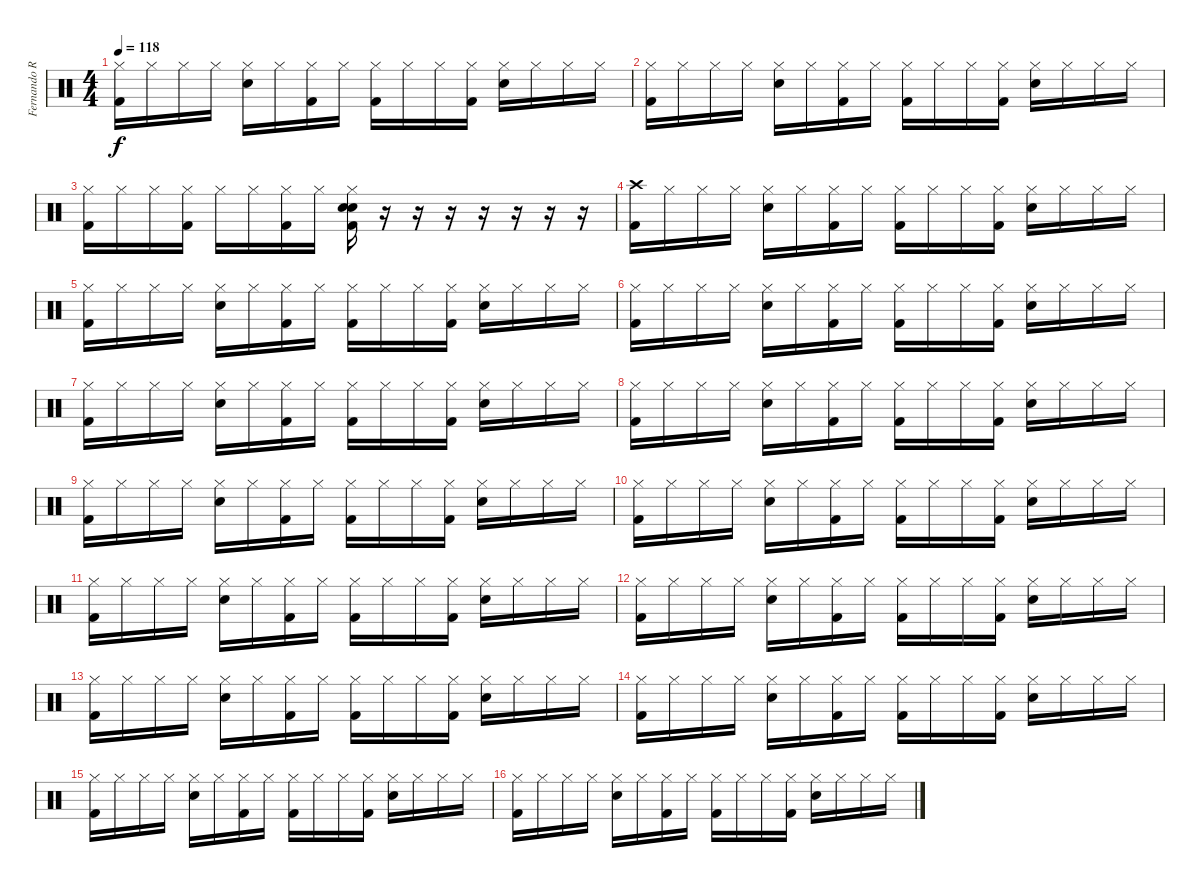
\track ("Fernando Ricciardi" "Fernando R") {instrument percussion}
\staff {score}
\articulation defaults
\ts (4 4)
\tempo 118
\clef neutral
\ks c
("Hi-Hat (closed)" "Kick (hit) 2").16{dy f} "Hi-Hat (closed)".16 "Hi-Hat (closed)".16 "Hi-Hat (closed)".16 ("Hi-Hat (closed)" "Snare (hit) 2").16 "Hi-Hat (closed)".16 ("Hi-Hat (closed)" "Kick (hit) 2").16 "Hi-Hat (closed)".16 ("Hi-Hat (closed)" "Kick (hit) 2").16 "Hi-Hat (closed)".16 "Hi-Hat (closed)".16 ("Hi-Hat (closed)" "Kick (hit) 2").16 ("Hi-Hat (closed)" "Snare (hit) 2").16 "Hi-Hat (closed)".16 "Hi-Hat (closed)".16 "Hi-Hat (closed)".16 |
("Hi-Hat (closed)" "Kick (hit) 2").16 "Hi-Hat (closed)".16 "Hi-Hat (closed)".16 "Hi-Hat (closed)".16 ("Hi-Hat (closed)" "Snare (hit) 2").16 "Hi-Hat (closed)".16 ("Hi-Hat (closed)" "Kick (hit) 2").16 "Hi-Hat (closed)".16 ("Hi-Hat (closed)" "Kick (hit) 2").16 "Hi-Hat (closed)".16 "Hi-Hat (closed)".16 ("Hi-Hat (closed)" "Kick (hit) 2").16 ("Hi-Hat (closed)" "Snare (hit) 2").16 "Hi-Hat (closed)".16 "Hi-Hat (closed)".16 "Hi-Hat (closed)".16 |
("Hi-Hat (closed)" "Kick (hit) 2").16 "Hi-Hat (closed)".16 "Hi-Hat (closed)".16 ("Hi-Hat (closed)" "Kick (hit) 2").16 "Hi-Hat (closed)".16 "Hi-Hat (closed)".16 ("Hi-Hat (closed)" "Kick (hit) 2").16 "Hi-Hat (closed)".16 ("Snare (hit) 2" "Hi-Hat (closed)" "Electric Snare (hit)" "Kick (hit) 2").16 r.16 r.16 r.16 r.16 r.16 r.16 r.16 |
("Crash high (hit)" "Kick (hit) 2").16 "Hi-Hat (closed)".16 "Hi-Hat (closed)".16 "Hi-Hat (closed)".16 ("Hi-Hat (closed)" "Snare (hit) 2").16 "Hi-Hat (closed)".16 ("Hi-Hat (closed)" "Kick (hit) 2").16 "Hi-Hat (closed)".16 ("Hi-Hat (closed)" "Kick (hit) 2").16 "Hi-Hat (closed)".16 "Hi-Hat (closed)".16 ("Hi-Hat (closed)" "Kick (hit) 2").16 ("Hi-Hat (closed)" "Snare (hit) 2").16 "Hi-Hat (closed)".16 "Hi-Hat (closed)".16 "Hi-Hat (closed)".16 |
("Hi-Hat (closed)" "Kick (hit) 2").16 "Hi-Hat (closed)".16 "Hi-Hat (closed)".16 "Hi-Hat (closed)".16 ("Hi-Hat (closed)" "Snare (hit) 2").16 "Hi-Hat (closed)".16 ("Hi-Hat (closed)" "Kick (hit) 2").16 "Hi-Hat (closed)".16 ("Hi-Hat (closed)" "Kick (hit) 2").16 "Hi-Hat (closed)".16 "Hi-Hat (closed)".16 ("Hi-Hat (closed)" "Kick (hit) 2").16 ("Hi-Hat (closed)" "Snare (hit) 2").16 "Hi-Hat (closed)".16 "Hi-Hat (closed)".16 "Hi-Hat (closed)".16 |
("Hi-Hat (closed)" "Kick (hit) 2").16 "Hi-Hat (closed)".16 "Hi-Hat (closed)".16 "Hi-Hat (closed)".16 ("Hi-Hat (closed)" "Snare (hit) 2").16 "Hi-Hat (closed)".16 ("Hi-Hat (closed)" "Kick (hit) 2").16 "Hi-Hat (closed)".16 ("Hi-Hat (closed)" "Kick (hit) 2").16 "Hi-Hat (closed)".16 "Hi-Hat (closed)".16 ("Hi-Hat (closed)" "Kick (hit) 2").16 ("Hi-Hat (closed)" "Snare (hit) 2").16 "Hi-Hat (closed)".16 "Hi-Hat (closed)".16 "Hi-Hat (closed)".16 |
("Hi-Hat (closed)" "Kick (hit) 2").16 "Hi-Hat (closed)".16 "Hi-Hat (closed)".16 "Hi-Hat (closed)".16 ("Hi-Hat (closed)" "Snare (hit) 2").16 "Hi-Hat (closed)".16 ("Hi-Hat (closed)" "Kick (hit) 2").16 "Hi-Hat (closed)".16 ("Hi-Hat (closed)" "Kick (hit) 2").16 "Hi-Hat (closed)".16 "Hi-Hat (closed)".16 ("Hi-Hat (closed)" "Kick (hit) 2").16 ("Hi-Hat (closed)" "Snare (hit) 2").16 "Hi-Hat (closed)".16 "Hi-Hat (closed)".16 "Hi-Hat (closed)".16 |
("Hi-Hat (closed)" "Kick (hit) 2").16 "Hi-Hat (closed)".16 "Hi-Hat (closed)".16 "Hi-Hat (closed)".16 ("Hi-Hat (closed)" "Snare (hit) 2").16 "Hi-Hat (closed)".16 ("Hi-Hat (closed)" "Kick (hit) 2").16 "Hi-Hat (closed)".16 ("Hi-Hat (closed)" "Kick (hit) 2").16 "Hi-Hat (closed)".16 "Hi-Hat (closed)".16 ("Hi-Hat (closed)" "Kick (hit) 2").16 ("Hi-Hat (closed)" "Snare (hit) 2").16 "Hi-Hat (closed)".16 "Hi-Hat (closed)".16 "Hi-Hat (closed)".16 |
("Hi-Hat (closed)" "Kick (hit) 2").16 "Hi-Hat (closed)".16 "Hi-Hat (closed)".16 "Hi-Hat (closed)".16 ("Hi-Hat (closed)" "Snare (hit) 2").16 "Hi-Hat (closed)".16 ("Hi-Hat (closed)" "Kick (hit) 2").16 "Hi-Hat (closed)".16 ("Hi-Hat (closed)" "Kick (hit) 2").16 "Hi-Hat (closed)".16 "Hi-Hat (closed)".16 ("Hi-Hat (closed)" "Kick (hit) 2").16 ("Hi-Hat (closed)" "Snare (hit) 2").16 "Hi-Hat (closed)".16 "Hi-Hat (closed)".16 "Hi-Hat (closed)".16 |
("Hi-Hat (closed)" "Kick (hit) 2").16 "Hi-Hat (closed)".16 "Hi-Hat (closed)".16 "Hi-Hat (closed)".16 ("Hi-Hat (closed)" "Snare (hit) 2").16 "Hi-Hat (closed)".16 ("Hi-Hat (closed)" "Kick (hit) 2").16 "Hi-Hat (closed)".16 ("Hi-Hat (closed)" "Kick (hit) 2").16 "Hi-Hat (closed)".16 "Hi-Hat (closed)".16 ("Hi-Hat (closed)" "Kick (hit) 2").16 ("Hi-Hat (closed)" "Snare (hit) 2").16 "Hi-Hat (closed)".16 "Hi-Hat (closed)".16 "Hi-Hat (closed)".16 |
("Hi-Hat (closed)" "Kick (hit) 2").16 "Hi-Hat (closed)".16 "Hi-Hat (closed)".16 "Hi-Hat (closed)".16 ("Hi-Hat (closed)" "Snare (hit) 2").16 "Hi-Hat (closed)".16 ("Hi-Hat (closed)" "Kick (hit) 2").16 "Hi-Hat (closed)".16 ("Hi-Hat (closed)" "Kick (hit) 2").16 "Hi-Hat (closed)".16 "Hi-Hat (closed)".16 ("Hi-Hat (closed)" "Kick (hit) 2").16 ("Hi-Hat (closed)" "Snare (hit) 2").16 "Hi-Hat (closed)".16 "Hi-Hat (closed)".16 "Hi-Hat (closed)".16 |
("Hi-Hat (closed)" "Kick (hit) 2").16 "Hi-Hat (closed)".16 "Hi-Hat (closed)".16 "Hi-Hat (closed)".16 ("Hi-Hat (closed)" "Snare (hit) 2").16 "Hi-Hat (closed)".16 ("Hi-Hat (closed)" "Kick (hit) 2").16 "Hi-Hat (closed)".16 ("Hi-Hat (closed)" "Kick (hit) 2").16 "Hi-Hat (closed)".16 "Hi-Hat (closed)".16 ("Hi-Hat (closed)" "Kick (hit) 2").16 ("Hi-Hat (closed)" "Snare (hit) 2").16 "Hi-Hat (closed)".16 "Hi-Hat (closed)".16 "Hi-Hat (closed)".16 |
("Hi-Hat (closed)" "Kick (hit) 2").16 "Hi-Hat (closed)".16 "Hi-Hat (closed)".16 "Hi-Hat (closed)".16 ("Hi-Hat (closed)" "Snare (hit) 2").16 "Hi-Hat (closed)".16 ("Hi-Hat (closed)" "Kick (hit) 2").16 "Hi-Hat (closed)".16 ("Hi-Hat (closed)" "Kick (hit) 2").16 "Hi-Hat (closed)".16 "Hi-Hat (closed)".16 ("Hi-Hat (closed)" "Kick (hit) 2").16 ("Hi-Hat (closed)" "Snare (hit) 2").16 "Hi-Hat (closed)".16 "Hi-Hat (closed)".16 "Hi-Hat (closed)".16 |
("Hi-Hat (closed)" "Kick (hit) 2").16 "Hi-Hat (closed)".16 "Hi-Hat (closed)".16 "Hi-Hat (closed)".16 ("Hi-Hat (closed)" "Snare (hit) 2").16 "Hi-Hat (closed)".16 ("Hi-Hat (closed)" "Kick (hit) 2").16 "Hi-Hat (closed)".16 ("Hi-Hat (closed)" "Kick (hit) 2").16 "Hi-Hat (closed)".16 "Hi-Hat (closed)".16 ("Hi-Hat (closed)" "Kick (hit) 2").16 ("Hi-Hat (closed)" "Snare (hit) 2").16 "Hi-Hat (closed)".16 "Hi-Hat (closed)".16 "Hi-Hat (closed)".16 |
("Hi-Hat (closed)" "Kick (hit) 2").16 "Hi-Hat (closed)".16 "Hi-Hat (closed)".16 "Hi-Hat (closed)".16 ("Hi-Hat (closed)" "Snare (hit) 2").16 "Hi-Hat (closed)".16 ("Hi-Hat (closed)" "Kick (hit) 2").16 "Hi-Hat (closed)".16 ("Hi-Hat (closed)" "Kick (hit) 2").16 "Hi-Hat (closed)".16 "Hi-Hat (closed)".16 ("Hi-Hat (closed)" "Kick (hit) 2").16 ("Hi-Hat (closed)" "Snare (hit) 2").16 "Hi-Hat (closed)".16 "Hi-Hat (closed)".16 "Hi-Hat (closed)".16 |
("Hi-Hat (closed)" "Kick (hit) 2").16 "Hi-Hat (closed)".16 "Hi-Hat (closed)".16 "Hi-Hat (closed)".16 ("Hi-Hat (closed)" "Snare (hit) 2").16 "Hi-Hat (closed)".16 ("Hi-Hat (closed)" "Kick (hit) 2").16 "Hi-Hat (closed)".16 ("Hi-Hat (closed)" "Kick (hit) 2").16 "Hi-Hat (closed)".16 "Hi-Hat (closed)".16 ("Hi-Hat (closed)" "Kick (hit) 2").16 ("Hi-Hat (closed)" "Snare (hit) 2").16 "Hi-Hat (closed)".16 "Hi-Hat (closed)".16 "Hi-Hat (closed)".16
